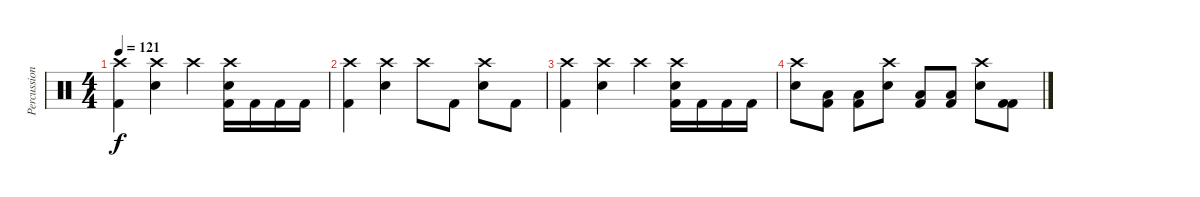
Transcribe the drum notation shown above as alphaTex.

\track ("Percussion" "Percussion") {instrument percussion}
\staff {score}
\articulation defaults
\ts (4 4)
\tempo 121
\clef neutral
\ks c
("Crash high (hit)" "Kick (hit) 2").4{dy f} ("Crash high (hit)" "Snare (hit) 2").4 "Crash high (hit)".4 ("Crash high (hit)" "Snare (hit) 2" "Kick (hit) 2").16 "Kick (hit) 2".16 "Kick (hit) 2".16 "Kick (hit) 2".16 |
("Crash high (hit)" "Kick (hit) 2").4 ("Crash high (hit)" "Snare (hit) 2").4 "Crash high (hit)".8 "Kick (hit) 2".8 ("Crash high (hit)" "Snare (hit) 2").8 "Kick (hit) 2".8 |
("Crash high (hit)" "Kick (hit) 2").4 ("Crash high (hit)" "Snare (hit) 2").4 "Crash high (hit)".4 ("Crash high (hit)" "Snare (hit) 2" "Kick (hit) 2").16 "Kick (hit) 2".16 "Kick (hit) 2".16 "Kick (hit) 2".16 |
("Crash high (hit)" "Snare (hit) 2").8 ("Low Tom (hit)" "Kick (hit) 2").8 ("Low Tom (hit)" "Kick (hit) 2").8 ("Crash high (hit)" "Snare (hit) 2").8 ("Low Tom (hit)" "Kick (hit) 2").8 ("Low Tom (hit)" "Kick (hit) 2").8 ("Crash high (hit)" "Snare (hit) 2").8 ("Kick (hit) 2" "Kick (hit) 2").8
